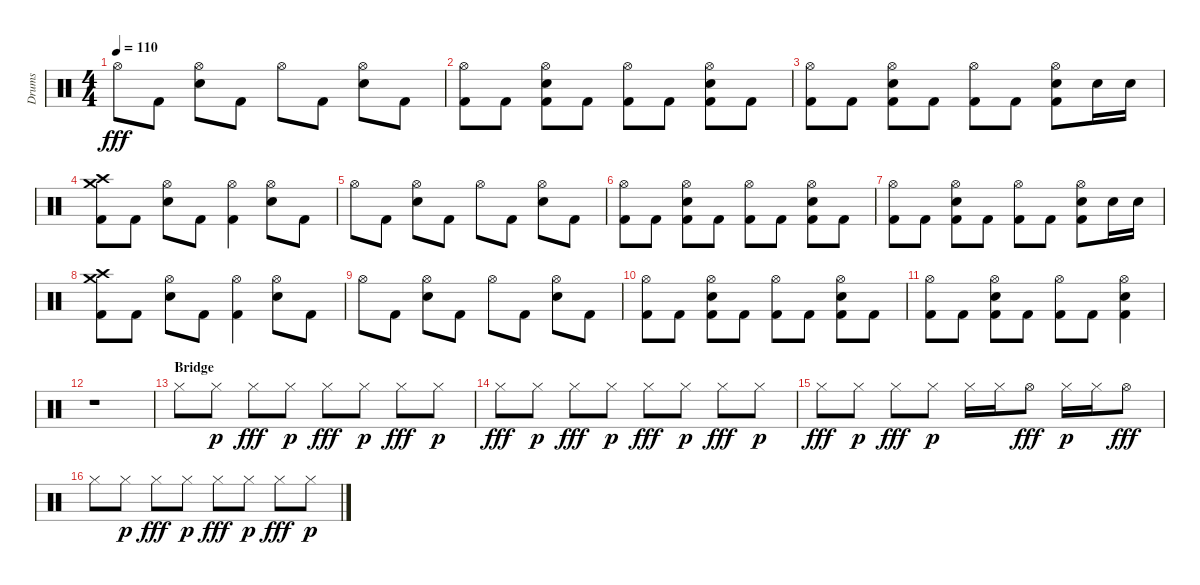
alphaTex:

\track ("Drums" "Drums") {instrument percussion}
\staff {score}
\articulation defaults
\ts (4 4)
\tempo 110
\clef neutral
\ks c "Hi-Hat (open)".8{dy fff} "Kick (hit) 2".8
("Hi-Hat (open)" "Electric Snare (hit)").8 "Kick (hit) 2".8 "Hi-Hat (open)".8 "Kick (hit) 2".8 ("Hi-Hat (open)" "Electric Snare (hit)").8 "Kick (hit) 2".8 |
("Hi-Hat (open)" "Kick (hit) 2").8 "Kick (hit) 2".8 ("Hi-Hat (open)" "Electric Snare (hit)" "Kick (hit) 2").8 "Kick (hit) 2".8 ("Hi-Hat (open)" "Kick (hit) 2").8 "Kick (hit) 2".8 ("Hi-Hat (open)" "Electric Snare (hit)" "Kick (hit) 2").8 "Kick (hit) 2".8 |
("Hi-Hat (open)" "Kick (hit) 2").8 "Kick (hit) 2".8 ("Hi-Hat (open)" "Electric Snare (hit)" "Kick (hit) 2").8 "Kick (hit) 2".8 ("Hi-Hat (open)" "Kick (hit) 2").8 "Kick (hit) 2".8 ("Hi-Hat (open)" "Electric Snare (hit)" "Kick (hit) 2").8 "Electric Snare (hit)".16 "Electric Snare (hit)".16 |
("Crash high (hit)" "Crash medium (hit)" "Kick (hit) 2").8 "Kick (hit) 2".8 ("Hi-Hat (open)" "Electric Snare (hit)").8 "Kick (hit) 2".8 ("Hi-Hat (open)" "Kick (hit) 2").4 ("Hi-Hat (open)" "Electric Snare (hit)").8 "Kick (hit) 2".8 |
"Hi-Hat (open)".8 "Kick (hit) 2".8 ("Hi-Hat (open)" "Electric Snare (hit)").8 "Kick (hit) 2".8 "Hi-Hat (open)".8 "Kick (hit) 2".8 ("Hi-Hat (open)" "Electric Snare (hit)").8 "Kick (hit) 2".8 |
("Hi-Hat (open)" "Kick (hit) 2").8 "Kick (hit) 2".8 ("Hi-Hat (open)" "Electric Snare (hit)" "Kick (hit) 2").8 "Kick (hit) 2".8 ("Hi-Hat (open)" "Kick (hit) 2").8 "Kick (hit) 2".8 ("Hi-Hat (open)" "Electric Snare (hit)" "Kick (hit) 2").8 "Kick (hit) 2".8 |
("Hi-Hat (open)" "Kick (hit) 2").8 "Kick (hit) 2".8 ("Hi-Hat (open)" "Electric Snare (hit)" "Kick (hit) 2").8 "Kick (hit) 2".8 ("Hi-Hat (open)" "Kick (hit) 2").8 "Kick (hit) 2".8 ("Hi-Hat (open)" "Electric Snare (hit)" "Kick (hit) 2").8 "Electric Snare (hit)".16 "Electric Snare (hit)".16 |
("Crash high (hit)" "Crash medium (hit)" "Kick (hit) 2").8 "Kick (hit) 2".8 ("Hi-Hat (open)" "Electric Snare (hit)").8 "Kick (hit) 2".8 ("Hi-Hat (open)" "Kick (hit) 2").4 ("Hi-Hat (open)" "Electric Snare (hit)").8 "Kick (hit) 2".8 |
"Hi-Hat (open)".8 "Kick (hit) 2".8 ("Hi-Hat (open)" "Electric Snare (hit)").8 "Kick (hit) 2".8 "Hi-Hat (open)".8 "Kick (hit) 2".8 ("Hi-Hat (open)" "Electric Snare (hit)").8 "Kick (hit) 2".8 |
("Hi-Hat (open)" "Kick (hit) 2").8 "Kick (hit) 2".8 ("Hi-Hat (open)" "Electric Snare (hit)" "Kick (hit) 2").8 "Kick (hit) 2".8 ("Hi-Hat (open)" "Kick (hit) 2").8 "Kick (hit) 2".8 ("Hi-Hat (open)" "Electric Snare (hit)" "Kick (hit) 2").8 "Kick (hit) 2".8 |
("Hi-Hat (open)" "Kick (hit) 2").8 "Kick (hit) 2".8 ("Hi-Hat (open)" "Electric Snare (hit)" "Kick (hit) 2").8 "Kick (hit) 2".8 ("Hi-Hat (open)" "Kick (hit) 2").8 "Kick (hit) 2".8 ("Hi-Hat (open)" "Electric Snare (hit)" "Kick (hit) 2").4 |
r.1 |
\section ("" "Bridge")
"Hi-Hat (closed)".8 "Hi-Hat (closed)".8{dy p} "Hi-Hat (closed)".8{dy fff} "Hi-Hat (closed)".8{dy p} "Hi-Hat (closed)".8{dy fff} "Hi-Hat (closed)".8{dy p} "Hi-Hat (closed)".8{dy fff} "Hi-Hat (closed)".8{dy p} |
"Hi-Hat (closed)".8{dy fff} "Hi-Hat (closed)".8{dy p} "Hi-Hat (closed)".8{dy fff} "Hi-Hat (closed)".8{dy p} "Hi-Hat (closed)".8{dy fff} "Hi-Hat (closed)".8{dy p} "Hi-Hat (closed)".8{dy fff} "Hi-Hat (closed)".8{dy p} |
"Hi-Hat (closed)".8{dy fff} "Hi-Hat (closed)".8{dy p} "Hi-Hat (closed)".8{dy fff} "Hi-Hat (closed)".8{dy p} "Hi-Hat (closed)".16 "Hi-Hat (closed)".16 "Hi-Hat (open)".8{dy fff} "Hi-Hat (closed)".16{dy p} "Hi-Hat (closed)".16 "Hi-Hat (open)".8{dy fff} |
"Hi-Hat (closed)".8 "Hi-Hat (closed)".8{dy p} "Hi-Hat (closed)".8{dy fff} "Hi-Hat (closed)".8{dy p} "Hi-Hat (closed)".8{dy fff} "Hi-Hat (closed)".8{dy p} "Hi-Hat (closed)".8{dy fff} "Hi-Hat (closed)".8{dy p}
